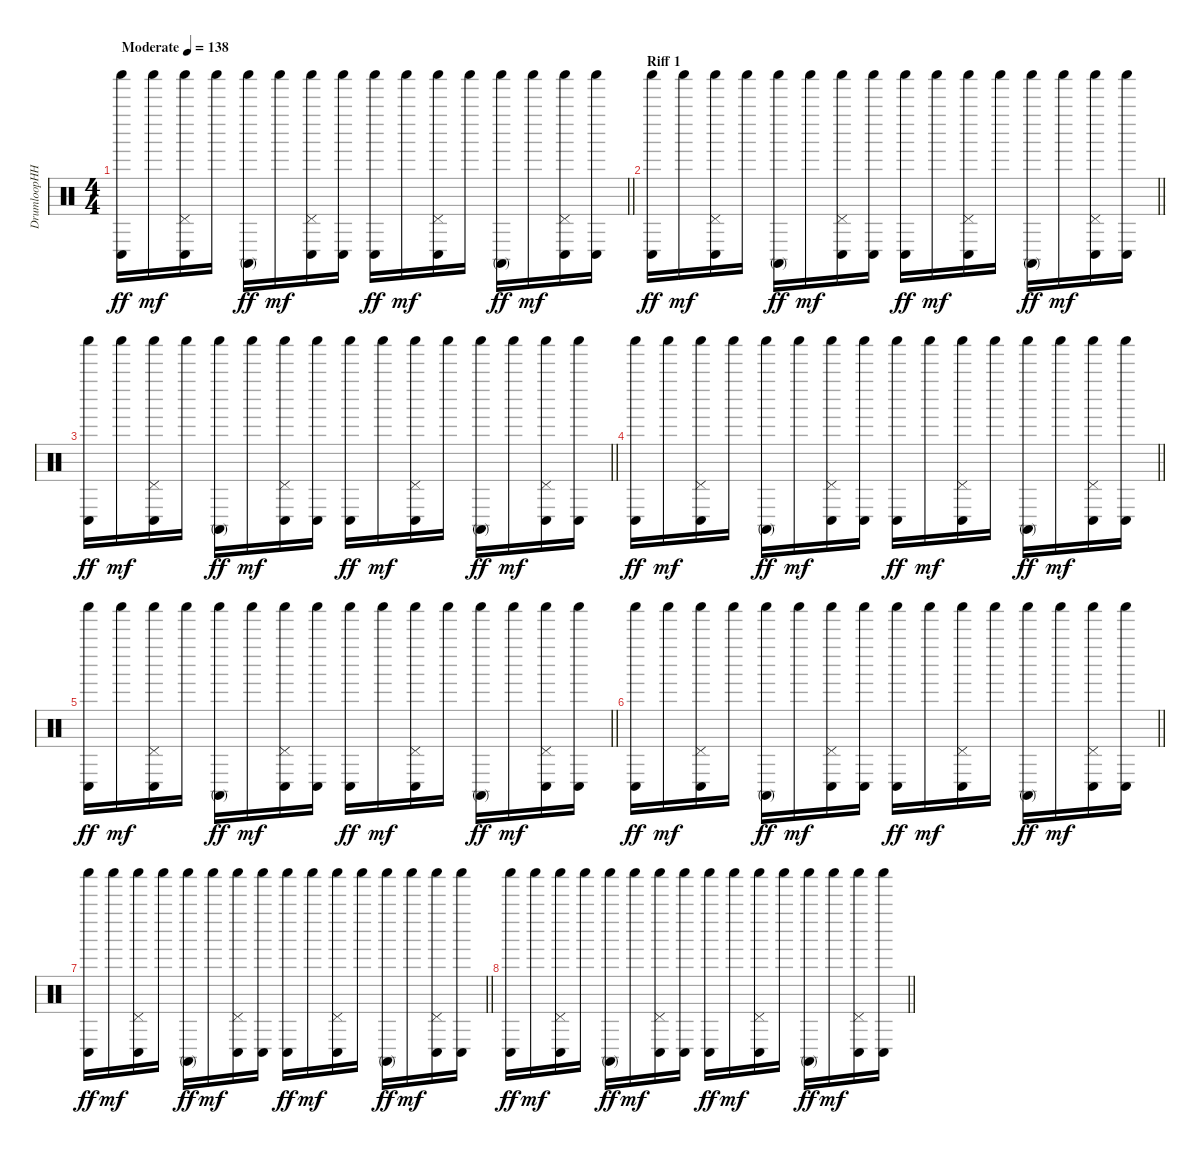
\track ("DrumloopHH" "DrumloopHH") {instrument percussion}
\staff {score}
\articulation defaults
\ts (4 4)
\tempo (138 "Moderate")
\clef neutral
\barLineRight lightlight
\ks c
("Conga low (hit)" "Shaker (hit)").16{dy ff} "Shaker (hit)".16{dy mf} ("Conga low (hit)" "Pedal Hi-Hat (hit)" "Shaker (hit)").16 "Shaker (hit)".16 ("Conga high (mute)" "Shaker (hit)").16{dy ff} "Shaker (hit)".16{dy mf} ("Conga low (hit)" "Pedal Hi-Hat (hit)" "Shaker (hit)").16 ("Conga low (hit)" "Shaker (hit)").16 ("Conga low (hit)" "Shaker (hit)").16{dy ff} "Shaker (hit)".16{dy mf} ("Conga low (hit)" "Pedal Hi-Hat (hit)" "Shaker (hit)").16 "Shaker (hit)".16 ("Conga high (mute)" "Shaker (hit)").16{dy ff} "Shaker (hit)".16{dy mf} ("Conga low (hit)" "Pedal Hi-Hat (hit)" "Shaker (hit)").16 ("Conga low (hit)" "Shaker (hit)").16 |
\section ("" "Riff 1")
\barLineRight lightlight
("Conga low (hit)" "Shaker (hit)").16{dy ff} "Shaker (hit)".16{dy mf} ("Conga low (hit)" "Pedal Hi-Hat (hit)" "Shaker (hit)").16 "Shaker (hit)".16 ("Conga high (mute)" "Shaker (hit)").16{dy ff} "Shaker (hit)".16{dy mf} ("Conga low (hit)" "Pedal Hi-Hat (hit)" "Shaker (hit)").16 ("Conga low (hit)" "Shaker (hit)").16 ("Conga low (hit)" "Shaker (hit)").16{dy ff} "Shaker (hit)".16{dy mf} ("Conga low (hit)" "Pedal Hi-Hat (hit)" "Shaker (hit)").16 "Shaker (hit)".16 ("Conga high (mute)" "Shaker (hit)").16{dy ff} "Shaker (hit)".16{dy mf} ("Conga low (hit)" "Pedal Hi-Hat (hit)" "Shaker (hit)").16 ("Conga low (hit)" "Shaker (hit)").16 |
\barLineRight lightlight
("Conga low (hit)" "Shaker (hit)").16{dy ff} "Shaker (hit)".16{dy mf} ("Conga low (hit)" "Pedal Hi-Hat (hit)" "Shaker (hit)").16 "Shaker (hit)".16 ("Conga high (mute)" "Shaker (hit)").16{dy ff} "Shaker (hit)".16{dy mf} ("Conga low (hit)" "Pedal Hi-Hat (hit)" "Shaker (hit)").16 ("Conga low (hit)" "Shaker (hit)").16 ("Conga low (hit)" "Shaker (hit)").16{dy ff} "Shaker (hit)".16{dy mf} ("Conga low (hit)" "Pedal Hi-Hat (hit)" "Shaker (hit)").16 "Shaker (hit)".16 ("Conga high (mute)" "Shaker (hit)").16{dy ff} "Shaker (hit)".16{dy mf} ("Conga low (hit)" "Pedal Hi-Hat (hit)" "Shaker (hit)").16 ("Conga low (hit)" "Shaker (hit)").16 |
\barLineRight lightlight
("Conga low (hit)" "Shaker (hit)").16{dy ff} "Shaker (hit)".16{dy mf} ("Conga low (hit)" "Pedal Hi-Hat (hit)" "Shaker (hit)").16 "Shaker (hit)".16 ("Conga high (mute)" "Shaker (hit)").16{dy ff} "Shaker (hit)".16{dy mf} ("Conga low (hit)" "Pedal Hi-Hat (hit)" "Shaker (hit)").16 ("Conga low (hit)" "Shaker (hit)").16 ("Conga low (hit)" "Shaker (hit)").16{dy ff} "Shaker (hit)".16{dy mf} ("Conga low (hit)" "Pedal Hi-Hat (hit)" "Shaker (hit)").16 "Shaker (hit)".16 ("Conga high (mute)" "Shaker (hit)").16{dy ff} "Shaker (hit)".16{dy mf} ("Conga low (hit)" "Pedal Hi-Hat (hit)" "Shaker (hit)").16 ("Conga low (hit)" "Shaker (hit)").16 |
\barLineRight lightlight
("Conga low (hit)" "Shaker (hit)").16{dy ff} "Shaker (hit)".16{dy mf} ("Conga low (hit)" "Pedal Hi-Hat (hit)" "Shaker (hit)").16 "Shaker (hit)".16 ("Conga high (mute)" "Shaker (hit)").16{dy ff} "Shaker (hit)".16{dy mf} ("Conga low (hit)" "Pedal Hi-Hat (hit)" "Shaker (hit)").16 ("Conga low (hit)" "Shaker (hit)").16 ("Conga low (hit)" "Shaker (hit)").16{dy ff} "Shaker (hit)".16{dy mf} ("Conga low (hit)" "Pedal Hi-Hat (hit)" "Shaker (hit)").16 "Shaker (hit)".16 ("Conga high (mute)" "Shaker (hit)").16{dy ff} "Shaker (hit)".16{dy mf} ("Conga low (hit)" "Pedal Hi-Hat (hit)" "Shaker (hit)").16 ("Conga low (hit)" "Shaker (hit)").16 |
\barLineRight lightlight
("Conga low (hit)" "Shaker (hit)").16{dy ff} "Shaker (hit)".16{dy mf} ("Conga low (hit)" "Pedal Hi-Hat (hit)" "Shaker (hit)").16 "Shaker (hit)".16 ("Conga high (mute)" "Shaker (hit)").16{dy ff} "Shaker (hit)".16{dy mf} ("Conga low (hit)" "Pedal Hi-Hat (hit)" "Shaker (hit)").16 ("Conga low (hit)" "Shaker (hit)").16 ("Conga low (hit)" "Shaker (hit)").16{dy ff} "Shaker (hit)".16{dy mf} ("Conga low (hit)" "Pedal Hi-Hat (hit)" "Shaker (hit)").16 "Shaker (hit)".16 ("Conga high (mute)" "Shaker (hit)").16{dy ff} "Shaker (hit)".16{dy mf} ("Conga low (hit)" "Pedal Hi-Hat (hit)" "Shaker (hit)").16 ("Conga low (hit)" "Shaker (hit)").16 |
\barLineRight lightlight
("Conga low (hit)" "Shaker (hit)").16{dy ff} "Shaker (hit)".16{dy mf} ("Conga low (hit)" "Pedal Hi-Hat (hit)" "Shaker (hit)").16 "Shaker (hit)".16 ("Conga high (mute)" "Shaker (hit)").16{dy ff} "Shaker (hit)".16{dy mf} ("Conga low (hit)" "Pedal Hi-Hat (hit)" "Shaker (hit)").16 ("Conga low (hit)" "Shaker (hit)").16 ("Conga low (hit)" "Shaker (hit)").16{dy ff} "Shaker (hit)".16{dy mf} ("Conga low (hit)" "Pedal Hi-Hat (hit)" "Shaker (hit)").16 "Shaker (hit)".16 ("Conga high (mute)" "Shaker (hit)").16{dy ff} "Shaker (hit)".16{dy mf} ("Conga low (hit)" "Pedal Hi-Hat (hit)" "Shaker (hit)").16 ("Conga low (hit)" "Shaker (hit)").16 |
\barLineRight lightlight
("Conga low (hit)" "Shaker (hit)").16{dy ff} "Shaker (hit)".16{dy mf} ("Conga low (hit)" "Pedal Hi-Hat (hit)" "Shaker (hit)").16 "Shaker (hit)".16 ("Conga high (mute)" "Shaker (hit)").16{dy ff} "Shaker (hit)".16{dy mf} ("Conga low (hit)" "Pedal Hi-Hat (hit)" "Shaker (hit)").16 ("Conga low (hit)" "Shaker (hit)").16 ("Conga low (hit)" "Shaker (hit)").16{dy ff} "Shaker (hit)".16{dy mf} ("Conga low (hit)" "Pedal Hi-Hat (hit)" "Shaker (hit)").16 "Shaker (hit)".16 ("Conga high (mute)" "Shaker (hit)").16{dy ff} "Shaker (hit)".16{dy mf} ("Conga low (hit)" "Pedal Hi-Hat (hit)" "Shaker (hit)").16 ("Conga low (hit)" "Shaker (hit)").16
